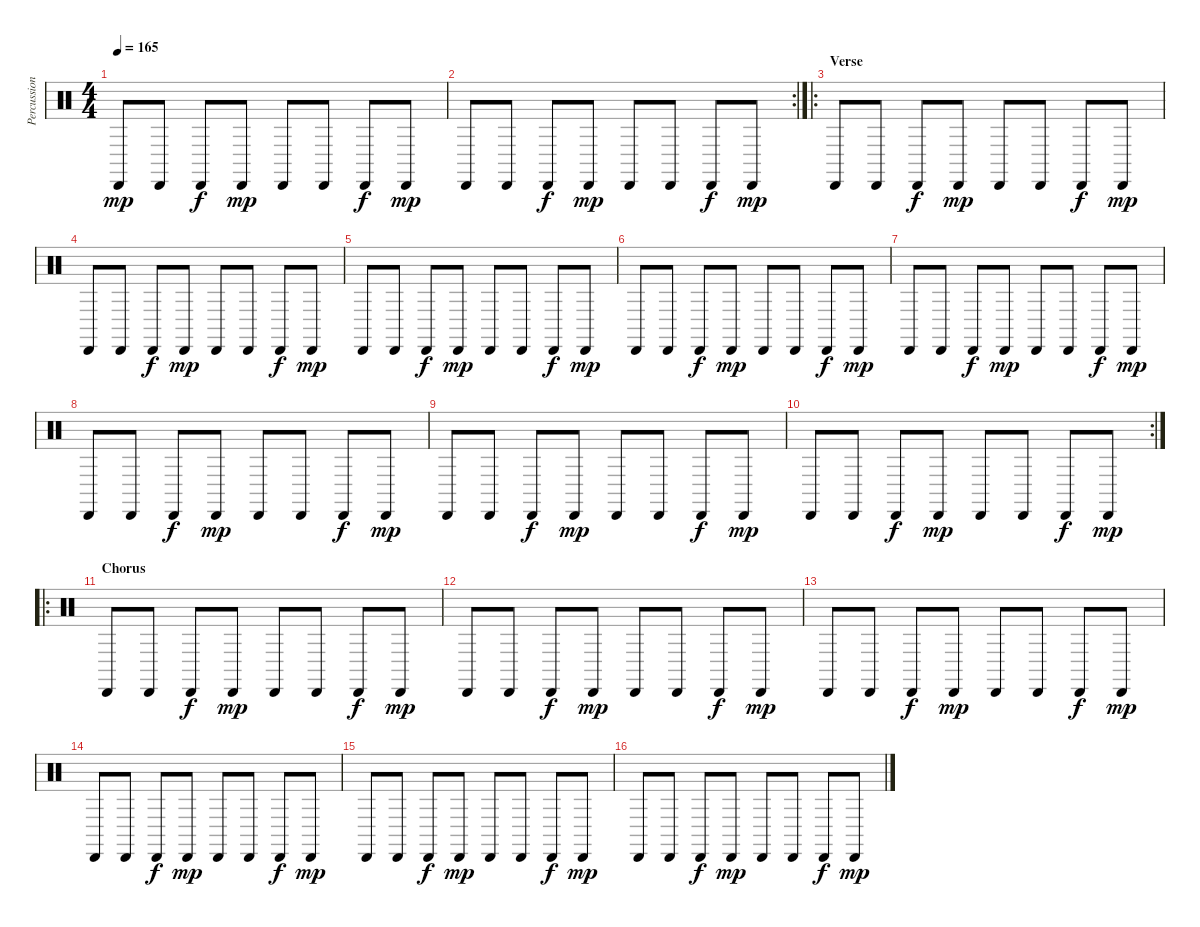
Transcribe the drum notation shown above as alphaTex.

\track ("Percussion" "Percussion") {instrument percussion}
\staff {score}
\articulation defaults
\ts (4 4)
\tempo 165
\clef neutral
\ks c "Cabasa (hit)".8{dy mp} "Cabasa (hit)".8 "Cabasa (hit)".8{dy f} "Cabasa (hit)".8{dy mp} "Cabasa (hit)".8 "Cabasa (hit)".8 "Cabasa (hit)".8{dy f} "Cabasa (hit)".8{dy mp}
|
\rc 2 "Cabasa (hit)".8 "Cabasa (hit)".8 "Cabasa (hit)".8{dy f} "Cabasa (hit)".8{dy mp} "Cabasa (hit)".8 "Cabasa (hit)".8 "Cabasa (hit)".8{dy f} "Cabasa (hit)".8{dy mp}
|
\ro
\section ("" "Verse")
"Cabasa (hit)".8 "Cabasa (hit)".8 "Cabasa (hit)".8{dy f} "Cabasa (hit)".8{dy mp} "Cabasa (hit)".8 "Cabasa (hit)".8 "Cabasa (hit)".8{dy f} "Cabasa (hit)".8{dy mp} |
"Cabasa (hit)".8 "Cabasa (hit)".8 "Cabasa (hit)".8{dy f} "Cabasa (hit)".8{dy mp} "Cabasa (hit)".8 "Cabasa (hit)".8 "Cabasa (hit)".8{dy f} "Cabasa (hit)".8{dy mp} |
"Cabasa (hit)".8 "Cabasa (hit)".8 "Cabasa (hit)".8{dy f} "Cabasa (hit)".8{dy mp} "Cabasa (hit)".8 "Cabasa (hit)".8 "Cabasa (hit)".8{dy f} "Cabasa (hit)".8{dy mp} |
"Cabasa (hit)".8 "Cabasa (hit)".8 "Cabasa (hit)".8{dy f} "Cabasa (hit)".8{dy mp} "Cabasa (hit)".8 "Cabasa (hit)".8 "Cabasa (hit)".8{dy f} "Cabasa (hit)".8{dy mp} |
"Cabasa (hit)".8 "Cabasa (hit)".8 "Cabasa (hit)".8{dy f} "Cabasa (hit)".8{dy mp} "Cabasa (hit)".8 "Cabasa (hit)".8 "Cabasa (hit)".8{dy f} "Cabasa (hit)".8{dy mp} |
"Cabasa (hit)".8 "Cabasa (hit)".8 "Cabasa (hit)".8{dy f} "Cabasa (hit)".8{dy mp} "Cabasa (hit)".8 "Cabasa (hit)".8 "Cabasa (hit)".8{dy f} "Cabasa (hit)".8{dy mp} |
"Cabasa (hit)".8 "Cabasa (hit)".8 "Cabasa (hit)".8{dy f} "Cabasa (hit)".8{dy mp} "Cabasa (hit)".8 "Cabasa (hit)".8 "Cabasa (hit)".8{dy f} "Cabasa (hit)".8{dy mp} |
\rc 2 "Cabasa (hit)".8 "Cabasa (hit)".8 "Cabasa (hit)".8{dy f} "Cabasa (hit)".8{dy mp} "Cabasa (hit)".8 "Cabasa (hit)".8 "Cabasa (hit)".8{dy f} "Cabasa (hit)".8{dy mp}
|
\ro
\section ("" "Chorus")
"Cabasa (hit)".8 "Cabasa (hit)".8 "Cabasa (hit)".8{dy f} "Cabasa (hit)".8{dy mp} "Cabasa (hit)".8 "Cabasa (hit)".8 "Cabasa (hit)".8{dy f} "Cabasa (hit)".8{dy mp} |
"Cabasa (hit)".8 "Cabasa (hit)".8 "Cabasa (hit)".8{dy f} "Cabasa (hit)".8{dy mp} "Cabasa (hit)".8 "Cabasa (hit)".8 "Cabasa (hit)".8{dy f} "Cabasa (hit)".8{dy mp} |
"Cabasa (hit)".8 "Cabasa (hit)".8 "Cabasa (hit)".8{dy f} "Cabasa (hit)".8{dy mp} "Cabasa (hit)".8 "Cabasa (hit)".8 "Cabasa (hit)".8{dy f} "Cabasa (hit)".8{dy mp} |
"Cabasa (hit)".8 "Cabasa (hit)".8 "Cabasa (hit)".8{dy f} "Cabasa (hit)".8{dy mp} "Cabasa (hit)".8 "Cabasa (hit)".8 "Cabasa (hit)".8{dy f} "Cabasa (hit)".8{dy mp} |
"Cabasa (hit)".8 "Cabasa (hit)".8 "Cabasa (hit)".8{dy f} "Cabasa (hit)".8{dy mp} "Cabasa (hit)".8 "Cabasa (hit)".8 "Cabasa (hit)".8{dy f} "Cabasa (hit)".8{dy mp} |
"Cabasa (hit)".8 "Cabasa (hit)".8 "Cabasa (hit)".8{dy f} "Cabasa (hit)".8{dy mp} "Cabasa (hit)".8 "Cabasa (hit)".8 "Cabasa (hit)".8{dy f} "Cabasa (hit)".8{dy mp}
